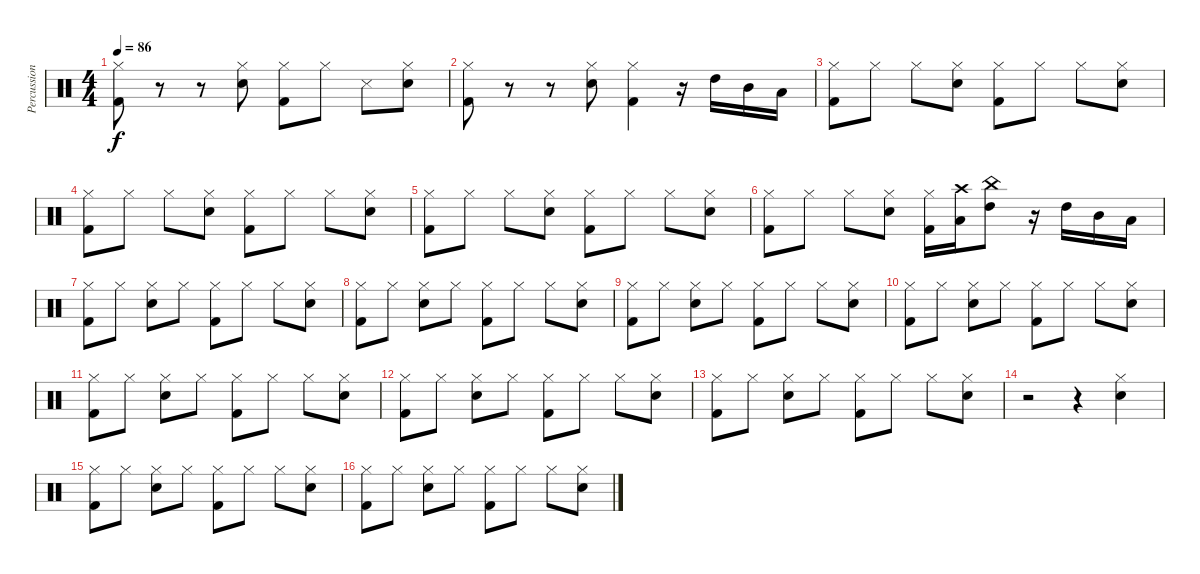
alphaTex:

\track ("Percussions" "Percussion") {instrument percussion}
\staff {score}
\articulation defaults
\ts (4 4)
\tempo 86
\clef neutral
\ks c
("Hi-Hat (closed)" "Kick (hit) 2").8{dy f} r.8 r.8 ("Hi-Hat (closed)" "Snare (hit) 2").8 ("Hi-Hat (closed)" "Kick (hit) 2").8 "Hi-Hat (closed)".8 "Snare (side stick) 3".8 ("Hi-Hat (closed)" "Snare (hit) 2").8 |
("Hi-Hat (closed)" "Kick (hit) 2").8 r.8 r.8 ("Hi-Hat (closed)" "Snare (hit) 2").8 ("Hi-Hat (closed)" "Kick (hit) 2").4 r.16 "High Tom (hit)".16 "Mid Tom (hit)".16 "Low Tom (hit)".16 |
("Hi-Hat (closed)" "Kick (hit) 2").8 "Hi-Hat (closed)".8 "Hi-Hat (closed)".8 ("Hi-Hat (closed)" "Snare (hit) 2").8 ("Hi-Hat (closed)" "Kick (hit) 2").8 "Hi-Hat (closed)".8 "Hi-Hat (closed)".8 ("Hi-Hat (closed)" "Snare (hit) 2").8 |
("Hi-Hat (closed)" "Kick (hit) 2").8 "Hi-Hat (closed)".8 "Hi-Hat (closed)".8 ("Hi-Hat (closed)" "Snare (hit) 2").8 ("Hi-Hat (closed)" "Kick (hit) 2").8 "Hi-Hat (closed)".8 "Hi-Hat (closed)".8 ("Hi-Hat (closed)" "Snare (hit) 2").8 |
("Hi-Hat (closed)" "Kick (hit) 2").8 "Hi-Hat (closed)".8 "Hi-Hat (closed)".8 ("Hi-Hat (closed)" "Snare (hit) 2").8 ("Hi-Hat (closed)" "Kick (hit) 2").8 "Hi-Hat (closed)".8 "Hi-Hat (closed)".8 ("Hi-Hat (closed)" "Snare (hit) 2").8 |
("Hi-Hat (closed)" "Kick (hit) 2").8 "Hi-Hat (closed)".8 "Hi-Hat (closed)".8 ("Hi-Hat (closed)" "Snare (hit) 2").8 ("Hi-Hat (closed)" "Kick (hit) 2").16 ("Crash high (hit)" "Low Tom (hit)").16 ("China (hit)" "High Tom (hit)").8 r.16 "High Tom (hit)".16 "Mid Tom (hit)".16 "Low Tom (hit)".16 |
("Hi-Hat (closed)" "Kick (hit) 2").8 "Hi-Hat (closed)".8 ("Hi-Hat (closed)" "Snare (hit) 2").8 "Hi-Hat (closed)".8 ("Hi-Hat (closed)" "Kick (hit) 2").8 "Hi-Hat (closed)".8 "Hi-Hat (closed)".8 ("Hi-Hat (closed)" "Snare (hit) 2").8 |
("Hi-Hat (closed)" "Kick (hit) 2").8 "Hi-Hat (closed)".8 ("Hi-Hat (closed)" "Snare (hit) 2").8 "Hi-Hat (closed)".8 ("Hi-Hat (closed)" "Kick (hit) 2").8 "Hi-Hat (closed)".8 "Hi-Hat (closed)".8 ("Hi-Hat (closed)" "Snare (hit) 2").8 |
("Hi-Hat (closed)" "Kick (hit) 2").8 "Hi-Hat (closed)".8 ("Hi-Hat (closed)" "Snare (hit) 2").8 "Hi-Hat (closed)".8 ("Hi-Hat (closed)" "Kick (hit) 2").8 "Hi-Hat (closed)".8 "Hi-Hat (closed)".8 ("Hi-Hat (closed)" "Snare (hit) 2").8 |
("Hi-Hat (closed)" "Kick (hit) 2").8 "Hi-Hat (closed)".8 ("Hi-Hat (closed)" "Snare (hit) 2").8 "Hi-Hat (closed)".8 ("Hi-Hat (closed)" "Kick (hit) 2").8 "Hi-Hat (closed)".8 "Hi-Hat (closed)".8 ("Hi-Hat (closed)" "Snare (hit) 2").8 |
("Hi-Hat (closed)" "Kick (hit) 2").8 "Hi-Hat (closed)".8 ("Hi-Hat (closed)" "Snare (hit) 2").8 "Hi-Hat (closed)".8 ("Hi-Hat (closed)" "Kick (hit) 2").8 "Hi-Hat (closed)".8 "Hi-Hat (closed)".8 ("Hi-Hat (closed)" "Snare (hit) 2").8 |
("Hi-Hat (closed)" "Kick (hit) 2").8 "Hi-Hat (closed)".8 ("Hi-Hat (closed)" "Snare (hit) 2").8 "Hi-Hat (closed)".8 ("Hi-Hat (closed)" "Kick (hit) 2").8 "Hi-Hat (closed)".8 "Hi-Hat (closed)".8 ("Hi-Hat (closed)" "Snare (hit) 2").8 |
("Hi-Hat (closed)" "Kick (hit) 2").8 "Hi-Hat (closed)".8 ("Hi-Hat (closed)" "Snare (hit) 2").8 "Hi-Hat (closed)".8 ("Hi-Hat (closed)" "Kick (hit) 2").8 "Hi-Hat (closed)".8 "Hi-Hat (closed)".8 ("Hi-Hat (closed)" "Snare (hit) 2").8 |
r.2 r.4 ("Hi-Hat (closed)" "Snare (hit) 2").4 |
("Hi-Hat (closed)" "Kick (hit) 2").8 "Hi-Hat (closed)".8 ("Hi-Hat (closed)" "Snare (hit) 2").8 "Hi-Hat (closed)".8 ("Hi-Hat (closed)" "Kick (hit) 2").8 "Hi-Hat (closed)".8 "Hi-Hat (closed)".8 ("Hi-Hat (closed)" "Snare (hit) 2").8 |
("Hi-Hat (closed)" "Kick (hit) 2").8 "Hi-Hat (closed)".8 ("Hi-Hat (closed)" "Snare (hit) 2").8 "Hi-Hat (closed)".8 ("Hi-Hat (closed)" "Kick (hit) 2").8 "Hi-Hat (closed)".8 "Hi-Hat (closed)".8 ("Hi-Hat (closed)" "Snare (hit) 2").8
